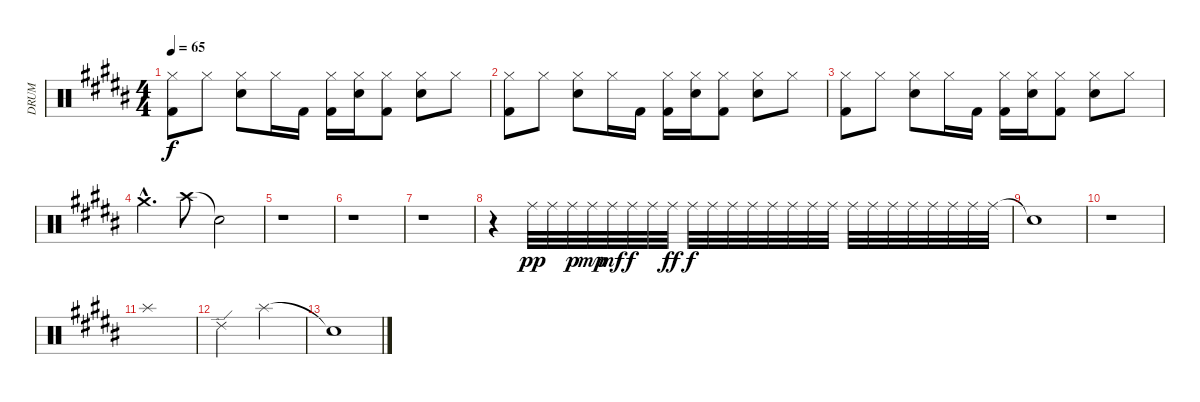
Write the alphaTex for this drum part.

\track ("DRUM" "DRUM") {instrument percussion}
\staff {score}
\articulation defaults
\ts (4 4)
\tempo 65
\clef neutral
\ks b
("Hi-Hat (closed)" "Kick (hit) 2").8{dy f} "Hi-Hat (closed)".8 ("Hi-Hat (closed)" "Electric Snare (hit)").8 "Hi-Hat (closed)".16 "Kick (hit) 2".16 ("Hi-Hat (closed)" "Kick (hit) 2").16 ("Hi-Hat (closed)" "Electric Snare (hit)").16 ("Hi-Hat (closed)" "Kick (hit) 2").8 ("Hi-Hat (closed)" "Electric Snare (hit)").8 "Hi-Hat (closed)".8 |
("Hi-Hat (closed)" "Kick (hit) 2").8 "Hi-Hat (closed)".8 ("Hi-Hat (closed)" "Electric Snare (hit)").8 "Hi-Hat (closed)".16 "Kick (hit) 2".16 ("Hi-Hat (closed)" "Kick (hit) 2").16 ("Hi-Hat (closed)" "Electric Snare (hit)").16 ("Hi-Hat (closed)" "Kick (hit) 2").8 ("Hi-Hat (closed)" "Electric Snare (hit)").8 "Hi-Hat (closed)".8 |
("Hi-Hat (closed)" "Kick (hit) 2").8 "Hi-Hat (closed)".8 ("Hi-Hat (closed)" "Electric Snare (hit)").8 "Hi-Hat (closed)".16 "Kick (hit) 2".16 ("Hi-Hat (closed)" "Kick (hit) 2").16 ("Hi-Hat (closed)" "Electric Snare (hit)").16 ("Hi-Hat (closed)" "Kick (hit) 2").8 ("Hi-Hat (closed)" "Electric Snare (hit)").8 "Hi-Hat (closed)".8 |
"Crash medium (hit)"{hac}.4{d} "Crash high (hit)".8 "Snare (hit)"{t}.2 |
r.1 |
r.1 |
r.1 |
r.4 "Ride (middle)".32{dy pp} "Ride (middle)".32 "Ride (middle)".32{dy p} "Ride (middle)".32{dy mp} "Ride (middle)".32{dy mf} "Ride (middle)".32{dy f} "Ride (middle)".32 "Ride (middle)".32{dy ff} "Ride (middle)".32{dy f} "Ride (middle)".32 "Ride (middle)".32 "Ride (middle)".32 "Ride (middle)".32 "Ride (middle)".32 "Ride (middle)".32 "Ride (middle)".32 "Ride (middle)".32 "Ride (middle)".32 "Ride (middle)".32 "Ride (middle)".32 "Ride (middle)".32 "Ride (middle)".32 "Ride (middle)".32 "Ride (middle)".32 |
"Snare (hit)"{t}.1 |
r.1 |
"Splash (hit)".1 |
"Ride (edge) 2".2 "Splash (hit)".2 |
"Snare (hit)"{t}.1
